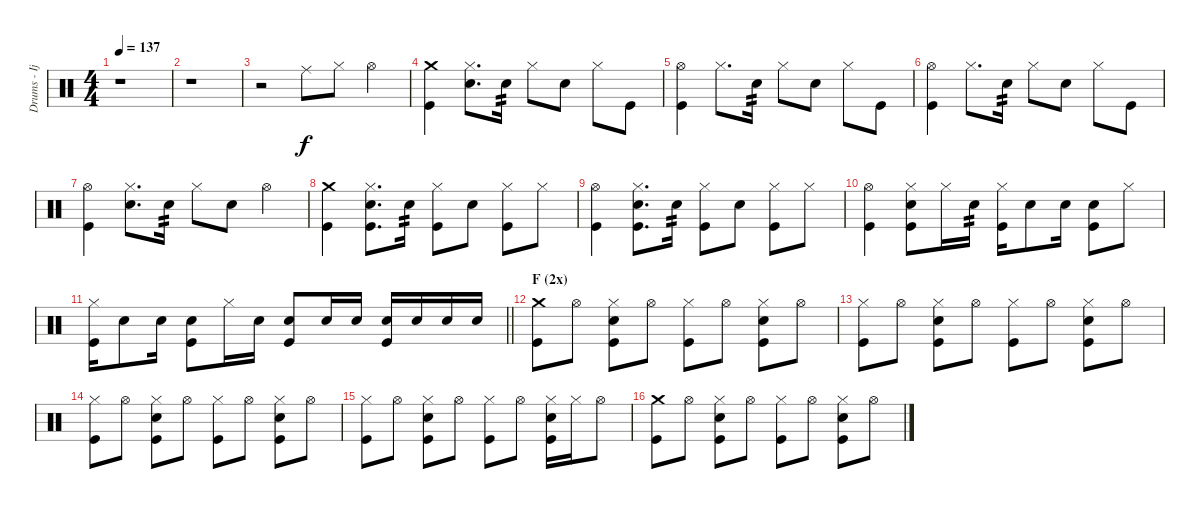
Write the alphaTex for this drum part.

\track ("Drums - Ijichi" "Drums - Ij") {instrument percussion}
\staff {score}
\articulation defaults
\ts (4 4)
\tempo 137
\clef neutral
\ks c
r.1{dy f} |
r.1 |
r.2 "Ride (middle)".8 "Hi-Hat (closed)".8 "Hi-Hat (open)".4 |
("Crash medium (hit)" "Kick (hit)").4 ("Hi-Hat (closed)" "Electric Snare (hit)").8{d} "Electric Snare (hit)".16{tp 2} "Hi-Hat (closed)".8 "Electric Snare (hit)".8 "Hi-Hat (closed)".8 "Kick (hit)".8 |
("Hi-Hat (open)" "Kick (hit)").4 "Hi-Hat (closed)".8{d} "Electric Snare (hit)".16{tp 2} "Hi-Hat (closed)".8 "Electric Snare (hit)".8 "Hi-Hat (closed)".8 "Kick (hit)".8 |
("Hi-Hat (open)" "Kick (hit)").4 "Hi-Hat (closed)".8{d} "Electric Snare (hit)".16{tp 2} "Hi-Hat (closed)".8 "Electric Snare (hit)".8 "Hi-Hat (closed)".8 "Kick (hit)".8 |
("Hi-Hat (open)" "Kick (hit)").4 ("Hi-Hat (closed)" "Electric Snare (hit)").8{d} "Electric Snare (hit)".16{tp 2} "Hi-Hat (closed)".8 "Electric Snare (hit)".8 "Hi-Hat (open)".4 |
("Crash medium (hit)" "Kick (hit)").4 ("Hi-Hat (closed)" "Electric Snare (hit)" "Kick (hit)").8{d} "Electric Snare (hit)".16{tp 2} ("Hi-Hat (closed)" "Kick (hit)").8 "Electric Snare (hit)".8 ("Hi-Hat (closed)" "Kick (hit)").8 "Hi-Hat (closed)".8 |
("Hi-Hat (open)" "Kick (hit)").4 ("Hi-Hat (closed)" "Electric Snare (hit)" "Kick (hit)").8{d} "Electric Snare (hit)".16{tp 2} ("Hi-Hat (closed)" "Kick (hit)").8 "Electric Snare (hit)".8 ("Hi-Hat (closed)" "Kick (hit)").8 "Hi-Hat (closed)".8 |
("Hi-Hat (open)" "Kick (hit)").4 ("Hi-Hat (closed)" "Electric Snare (hit)" "Kick (hit)").8 "Hi-Hat (closed)".16 "Electric Snare (hit)".16{tp 2} ("Hi-Hat (closed)" "Kick (hit)").16 "Electric Snare (hit)".8 "Electric Snare (hit)".16 ("Electric Snare (hit)" "Kick (hit)").8 "Hi-Hat (closed)".8 |
\barLineRight lightlight
("Hi-Hat (closed)" "Kick (hit)").16 "Electric Snare (hit)".8 "Electric Snare (hit)".16 ("Electric Snare (hit)" "Kick (hit)").8 "Hi-Hat (closed)".16 "Electric Snare (hit)".16 ("Electric Snare (hit)" "Kick (hit)").8 "Electric Snare (hit)".16 "Electric Snare (hit)".16 ("Electric Snare (hit)" "Kick (hit)").16 "Electric Snare (hit)".16 "Electric Snare (hit)".16 "Electric Snare (hit)".16 |
\section ("" "F (2x)")
("Crash medium (hit)" "Kick (hit)").8 "Hi-Hat (open)".8 ("Hi-Hat (closed)" "Electric Snare (hit)" "Kick (hit)").8 "Hi-Hat (open)".8 ("Hi-Hat (closed)" "Kick (hit)").8 "Hi-Hat (open)".8 ("Hi-Hat (closed)" "Electric Snare (hit)" "Kick (hit)").8 "Hi-Hat (open)".8 |
("Hi-Hat (closed)" "Kick (hit)").8 "Hi-Hat (open)".8 ("Hi-Hat (closed)" "Electric Snare (hit)" "Kick (hit)").8 "Hi-Hat (open)".8 ("Hi-Hat (closed)" "Kick (hit)").8 "Hi-Hat (open)".8 ("Hi-Hat (closed)" "Electric Snare (hit)" "Kick (hit)").8 "Hi-Hat (open)".8 |
("Hi-Hat (closed)" "Kick (hit)").8 "Hi-Hat (open)".8 ("Hi-Hat (closed)" "Electric Snare (hit)" "Kick (hit)").8 "Hi-Hat (open)".8 ("Hi-Hat (closed)" "Kick (hit)").8 "Hi-Hat (open)".8 ("Hi-Hat (closed)" "Electric Snare (hit)" "Kick (hit)").8 "Hi-Hat (open)".8 |
("Hi-Hat (closed)" "Kick (hit)").8 "Hi-Hat (open)".8 ("Hi-Hat (closed)" "Electric Snare (hit)" "Kick (hit)").8 "Hi-Hat (open)".8 ("Hi-Hat (closed)" "Kick (hit)").8 "Hi-Hat (open)".8 ("Hi-Hat (closed)" "Electric Snare (hit)" "Kick (hit)").16 "Hi-Hat (closed)".16 "Hi-Hat (open)".8 |
("Crash medium (hit)" "Kick (hit)").8 "Hi-Hat (open)".8 ("Hi-Hat (closed)" "Electric Snare (hit)" "Kick (hit)").8 "Hi-Hat (open)".8 ("Hi-Hat (closed)" "Kick (hit)").8 "Hi-Hat (open)".8 ("Hi-Hat (closed)" "Electric Snare (hit)" "Kick (hit)").8 "Hi-Hat (open)".8
